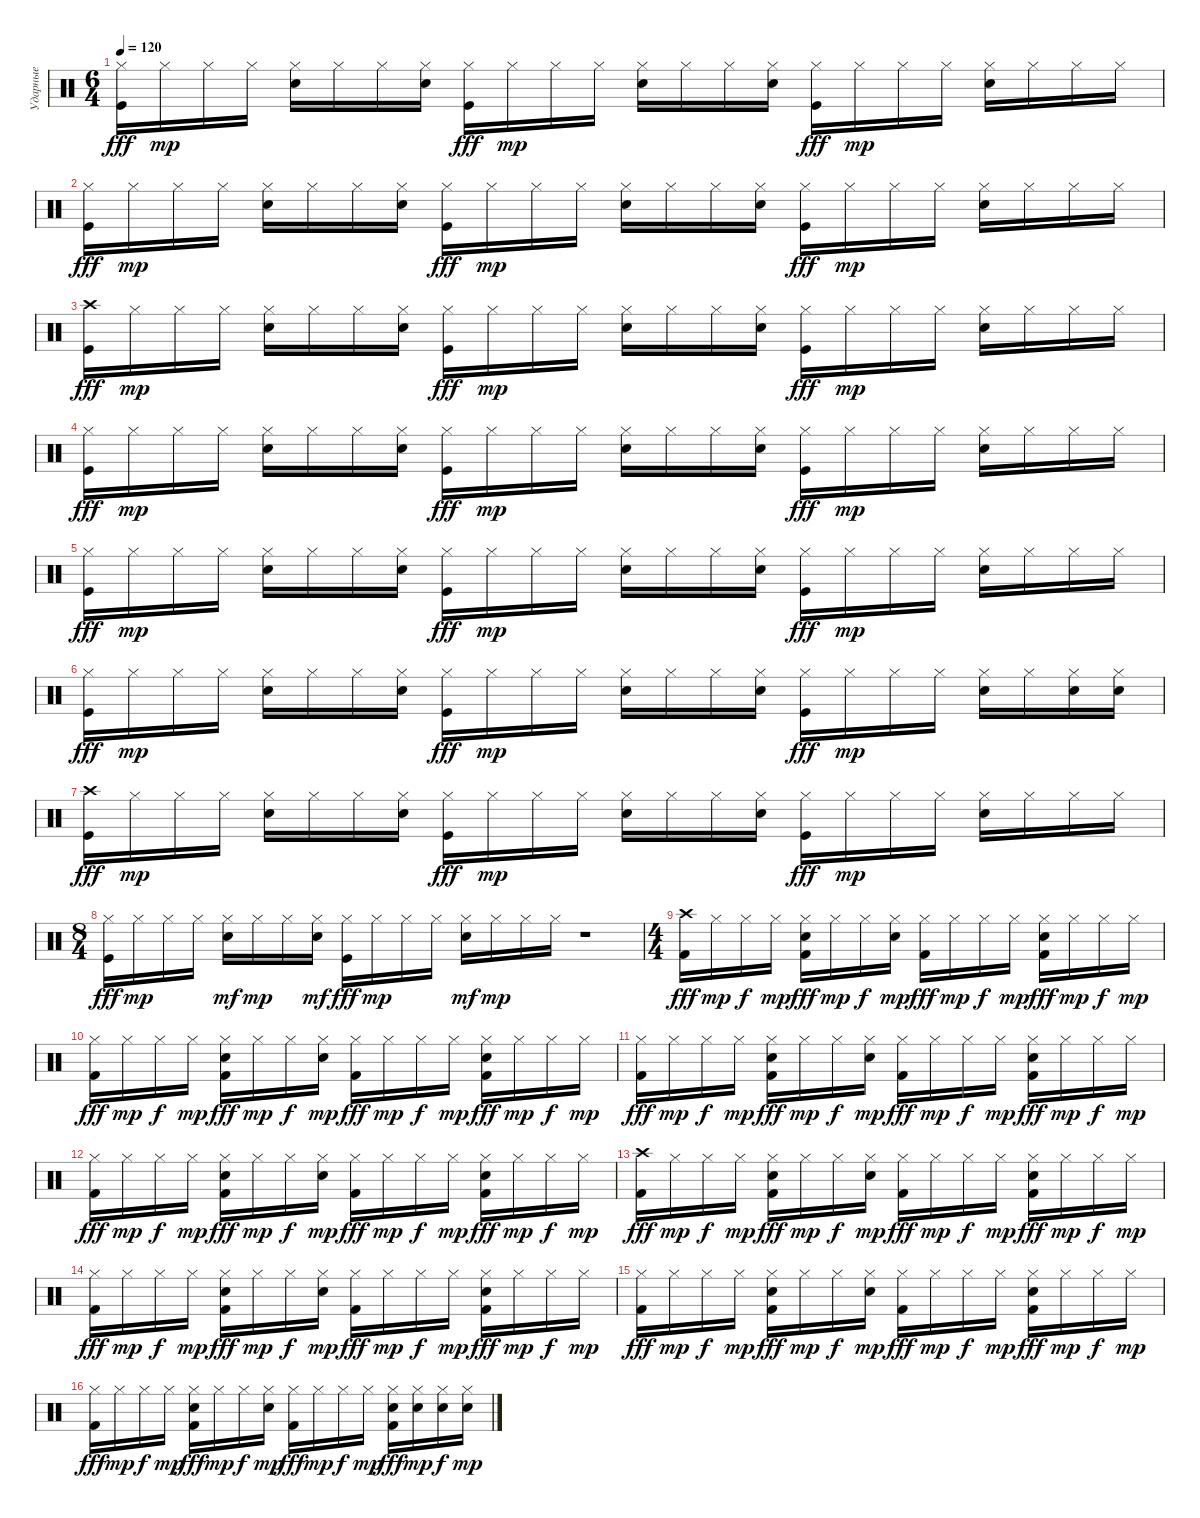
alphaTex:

\track ("Ударные" "Ударные") {instrument percussion}
\staff {score}
\articulation defaults
\ts (6 4)
\tempo 120
\clef neutral
\ks c
("Hi-Hat (closed)" "Kick (hit)").16{dy fff} "Hi-Hat (closed)".16{dy mp} "Hi-Hat (closed)".16 "Hi-Hat (closed)".16 ("Hi-Hat (closed)" "Snare (hit) 2").16 "Hi-Hat (closed)".16 "Hi-Hat (closed)".16 ("Hi-Hat (closed)" "Snare (hit) 2").16 ("Hi-Hat (closed)" "Kick (hit)").16{dy fff} "Hi-Hat (closed)".16{dy mp} "Hi-Hat (closed)".16 "Hi-Hat (closed)".16 ("Hi-Hat (closed)" "Snare (hit) 2").16 "Hi-Hat (closed)".16 "Hi-Hat (closed)".16 ("Hi-Hat (closed)" "Snare (hit) 2").16 ("Hi-Hat (closed)" "Kick (hit)").16{dy fff} "Hi-Hat (closed)".16{dy mp} "Hi-Hat (closed)".16 "Hi-Hat (closed)".16 ("Hi-Hat (closed)" "Snare (hit) 2").16 "Hi-Hat (closed)".16 "Hi-Hat (closed)".16 "Hi-Hat (closed)".16 |
("Hi-Hat (closed)" "Kick (hit)").16{dy fff} "Hi-Hat (closed)".16{dy mp} "Hi-Hat (closed)".16 "Hi-Hat (closed)".16 ("Hi-Hat (closed)" "Snare (hit) 2").16 "Hi-Hat (closed)".16 "Hi-Hat (closed)".16 ("Hi-Hat (closed)" "Snare (hit) 2").16 ("Hi-Hat (closed)" "Kick (hit)").16{dy fff} "Hi-Hat (closed)".16{dy mp} "Hi-Hat (closed)".16 "Hi-Hat (closed)".16 ("Hi-Hat (closed)" "Snare (hit) 2").16 "Hi-Hat (closed)".16 "Hi-Hat (closed)".16 ("Hi-Hat (closed)" "Snare (hit) 2").16 ("Hi-Hat (closed)" "Kick (hit)").16{dy fff} "Hi-Hat (closed)".16{dy mp} "Hi-Hat (closed)".16 "Hi-Hat (closed)".16 ("Hi-Hat (closed)" "Snare (hit) 2").16 "Hi-Hat (closed)".16 "Hi-Hat (closed)".16 "Hi-Hat (closed)".16 |
("Crash high (hit)" "Kick (hit)").16{dy fff} "Hi-Hat (closed)".16{dy mp} "Hi-Hat (closed)".16 "Hi-Hat (closed)".16 ("Hi-Hat (closed)" "Snare (hit) 2").16 "Hi-Hat (closed)".16 "Hi-Hat (closed)".16 ("Hi-Hat (closed)" "Snare (hit) 2").16 ("Hi-Hat (closed)" "Kick (hit)").16{dy fff} "Hi-Hat (closed)".16{dy mp} "Hi-Hat (closed)".16 "Hi-Hat (closed)".16 ("Hi-Hat (closed)" "Snare (hit) 2").16 "Hi-Hat (closed)".16 "Hi-Hat (closed)".16 ("Hi-Hat (closed)" "Snare (hit) 2").16 ("Hi-Hat (closed)" "Kick (hit)").16{dy fff} "Hi-Hat (closed)".16{dy mp} "Hi-Hat (closed)".16 "Hi-Hat (closed)".16 ("Hi-Hat (closed)" "Snare (hit) 2").16 "Hi-Hat (closed)".16 "Hi-Hat (closed)".16 "Hi-Hat (closed)".16 |
("Hi-Hat (closed)" "Kick (hit)").16{dy fff} "Hi-Hat (closed)".16{dy mp} "Hi-Hat (closed)".16 "Hi-Hat (closed)".16 ("Hi-Hat (closed)" "Snare (hit) 2").16 "Hi-Hat (closed)".16 "Hi-Hat (closed)".16 ("Hi-Hat (closed)" "Snare (hit) 2").16 ("Hi-Hat (closed)" "Kick (hit)").16{dy fff} "Hi-Hat (closed)".16{dy mp} "Hi-Hat (closed)".16 "Hi-Hat (closed)".16 ("Hi-Hat (closed)" "Snare (hit) 2").16 "Hi-Hat (closed)".16 "Hi-Hat (closed)".16 ("Hi-Hat (closed)" "Snare (hit) 2").16 ("Hi-Hat (closed)" "Kick (hit)").16{dy fff} "Hi-Hat (closed)".16{dy mp} "Hi-Hat (closed)".16 "Hi-Hat (closed)".16 ("Hi-Hat (closed)" "Snare (hit) 2").16 "Hi-Hat (closed)".16 "Hi-Hat (closed)".16 "Hi-Hat (closed)".16 |
("Hi-Hat (closed)" "Kick (hit)").16{dy fff} "Hi-Hat (closed)".16{dy mp} "Hi-Hat (closed)".16 "Hi-Hat (closed)".16 ("Hi-Hat (closed)" "Snare (hit) 2").16 "Hi-Hat (closed)".16 "Hi-Hat (closed)".16 ("Hi-Hat (closed)" "Snare (hit) 2").16 ("Hi-Hat (closed)" "Kick (hit)").16{dy fff} "Hi-Hat (closed)".16{dy mp} "Hi-Hat (closed)".16 "Hi-Hat (closed)".16 ("Hi-Hat (closed)" "Snare (hit) 2").16 "Hi-Hat (closed)".16 "Hi-Hat (closed)".16 ("Hi-Hat (closed)" "Snare (hit) 2").16 ("Hi-Hat (closed)" "Kick (hit)").16{dy fff} "Hi-Hat (closed)".16{dy mp} "Hi-Hat (closed)".16 "Hi-Hat (closed)".16 ("Hi-Hat (closed)" "Snare (hit) 2").16 "Hi-Hat (closed)".16 "Hi-Hat (closed)".16 "Hi-Hat (closed)".16 |
("Hi-Hat (closed)" "Kick (hit)").16{dy fff} "Hi-Hat (closed)".16{dy mp} "Hi-Hat (closed)".16 "Hi-Hat (closed)".16 ("Hi-Hat (closed)" "Snare (hit) 2").16 "Hi-Hat (closed)".16 "Hi-Hat (closed)".16 ("Hi-Hat (closed)" "Snare (hit) 2").16 ("Hi-Hat (closed)" "Kick (hit)").16{dy fff} "Hi-Hat (closed)".16{dy mp} "Hi-Hat (closed)".16 "Hi-Hat (closed)".16 ("Hi-Hat (closed)" "Snare (hit) 2").16 "Hi-Hat (closed)".16 "Hi-Hat (closed)".16 ("Hi-Hat (closed)" "Snare (hit) 2").16 ("Hi-Hat (closed)" "Kick (hit)").16{dy fff} "Hi-Hat (closed)".16{dy mp} "Hi-Hat (closed)".16 "Hi-Hat (closed)".16 ("Hi-Hat (closed)" "Snare (hit) 2").16 "Hi-Hat (closed)".16 ("Hi-Hat (closed)" "Snare (hit) 2").16 ("Hi-Hat (closed)" "Snare (hit) 2").16 |
("Crash high (hit)" "Kick (hit)").16{dy fff} "Hi-Hat (closed)".16{dy mp} "Hi-Hat (closed)".16 "Hi-Hat (closed)".16 ("Hi-Hat (closed)" "Snare (hit) 2").16 "Hi-Hat (closed)".16 "Hi-Hat (closed)".16 ("Hi-Hat (closed)" "Snare (hit) 2").16 ("Hi-Hat (closed)" "Kick (hit)").16{dy fff} "Hi-Hat (closed)".16{dy mp} "Hi-Hat (closed)".16 "Hi-Hat (closed)".16 ("Hi-Hat (closed)" "Snare (hit) 2").16 "Hi-Hat (closed)".16 "Hi-Hat (closed)".16 ("Hi-Hat (closed)" "Snare (hit) 2").16 ("Hi-Hat (closed)" "Kick (hit)").16{dy fff} "Hi-Hat (closed)".16{dy mp} "Hi-Hat (closed)".16 "Hi-Hat (closed)".16 ("Hi-Hat (closed)" "Snare (hit) 2").16 "Hi-Hat (closed)".16 "Hi-Hat (closed)".16 "Hi-Hat (closed)".16 |
\ts (8 4)
("Hi-Hat (closed)" "Kick (hit)").16{dy fff} "Hi-Hat (closed)".16{dy mp} "Hi-Hat (closed)".16 "Hi-Hat (closed)".16 ("Hi-Hat (closed)" "Snare (hit) 2").16{dy mf} "Hi-Hat (closed)".16{dy mp} "Hi-Hat (closed)".16 ("Hi-Hat (closed)" "Snare (hit) 2").16{dy mf} ("Hi-Hat (closed)" "Kick (hit)").16{dy fff} "Hi-Hat (closed)".16{dy mp} "Hi-Hat (closed)".16 "Hi-Hat (closed)".16 ("Hi-Hat (closed)" "Snare (hit) 2").16{dy mf} "Hi-Hat (closed)".16{dy mp} "Hi-Hat (closed)".16 "Hi-Hat (closed)".16 r.1 |
\ts (4 4)
("Crash high (hit)" "Kick (hit) 2").16{dy fff} "Hi-Hat (closed)".16{dy mp} "Hi-Hat (closed)".16{dy f} "Hi-Hat (closed)".16{dy mp} ("Hi-Hat (closed)" "Snare (hit) 2" "Kick (hit) 2").16{dy fff} "Hi-Hat (closed)".16{dy mp} "Hi-Hat (closed)".16{dy f} ("Hi-Hat (closed)" "Snare (hit) 2").16{dy mp} ("Hi-Hat (closed)" "Kick (hit) 2").16{dy fff} "Hi-Hat (closed)".16{dy mp} "Hi-Hat (closed)".16{dy f} "Hi-Hat (closed)".16{dy mp} ("Hi-Hat (closed)" "Snare (hit) 2" "Kick (hit) 2").16{dy fff} "Hi-Hat (closed)".16{dy mp} "Hi-Hat (closed)".16{dy f} "Hi-Hat (closed)".16{dy mp} |
("Hi-Hat (closed)" "Kick (hit) 2").16{dy fff} "Hi-Hat (closed)".16{dy mp} "Hi-Hat (closed)".16{dy f} "Hi-Hat (closed)".16{dy mp} ("Hi-Hat (closed)" "Snare (hit) 2" "Kick (hit) 2").16{dy fff} "Hi-Hat (closed)".16{dy mp} "Hi-Hat (closed)".16{dy f} ("Hi-Hat (closed)" "Snare (hit) 2").16{dy mp} ("Hi-Hat (closed)" "Kick (hit) 2").16{dy fff} "Hi-Hat (closed)".16{dy mp} "Hi-Hat (closed)".16{dy f} "Hi-Hat (closed)".16{dy mp} ("Hi-Hat (closed)" "Snare (hit) 2" "Kick (hit) 2").16{dy fff} "Hi-Hat (closed)".16{dy mp} "Hi-Hat (closed)".16{dy f} "Hi-Hat (closed)".16{dy mp} |
("Hi-Hat (closed)" "Kick (hit) 2").16{dy fff} "Hi-Hat (closed)".16{dy mp} "Hi-Hat (closed)".16{dy f} "Hi-Hat (closed)".16{dy mp} ("Hi-Hat (closed)" "Snare (hit) 2" "Kick (hit) 2").16{dy fff} "Hi-Hat (closed)".16{dy mp} "Hi-Hat (closed)".16{dy f} ("Hi-Hat (closed)" "Snare (hit) 2").16{dy mp} ("Hi-Hat (closed)" "Kick (hit) 2").16{dy fff} "Hi-Hat (closed)".16{dy mp} "Hi-Hat (closed)".16{dy f} "Hi-Hat (closed)".16{dy mp} ("Hi-Hat (closed)" "Snare (hit) 2" "Kick (hit) 2").16{dy fff} "Hi-Hat (closed)".16{dy mp} "Hi-Hat (closed)".16{dy f} "Hi-Hat (closed)".16{dy mp} |
("Hi-Hat (closed)" "Kick (hit) 2").16{dy fff} "Hi-Hat (closed)".16{dy mp} "Hi-Hat (closed)".16{dy f} "Hi-Hat (closed)".16{dy mp} ("Hi-Hat (closed)" "Snare (hit) 2" "Kick (hit) 2").16{dy fff} "Hi-Hat (closed)".16{dy mp} "Hi-Hat (closed)".16{dy f} ("Hi-Hat (closed)" "Snare (hit) 2").16{dy mp} ("Hi-Hat (closed)" "Kick (hit) 2").16{dy fff} "Hi-Hat (closed)".16{dy mp} "Hi-Hat (closed)".16{dy f} "Hi-Hat (closed)".16{dy mp} ("Hi-Hat (closed)" "Snare (hit) 2" "Kick (hit) 2").16{dy fff} "Hi-Hat (closed)".16{dy mp} "Hi-Hat (closed)".16{dy f} "Hi-Hat (closed)".16{dy mp} |
("Crash high (hit)" "Kick (hit) 2").16{dy fff} "Hi-Hat (closed)".16{dy mp} "Hi-Hat (closed)".16{dy f} "Hi-Hat (closed)".16{dy mp} ("Hi-Hat (closed)" "Snare (hit) 2" "Kick (hit) 2").16{dy fff} "Hi-Hat (closed)".16{dy mp} "Hi-Hat (closed)".16{dy f} ("Hi-Hat (closed)" "Snare (hit) 2").16{dy mp} ("Hi-Hat (closed)" "Kick (hit) 2").16{dy fff} "Hi-Hat (closed)".16{dy mp} "Hi-Hat (closed)".16{dy f} "Hi-Hat (closed)".16{dy mp} ("Hi-Hat (closed)" "Snare (hit) 2" "Kick (hit) 2").16{dy fff} "Hi-Hat (closed)".16{dy mp} "Hi-Hat (closed)".16{dy f} "Hi-Hat (closed)".16{dy mp} |
("Hi-Hat (closed)" "Kick (hit) 2").16{dy fff} "Hi-Hat (closed)".16{dy mp} "Hi-Hat (closed)".16{dy f} "Hi-Hat (closed)".16{dy mp} ("Hi-Hat (closed)" "Snare (hit) 2" "Kick (hit) 2").16{dy fff} "Hi-Hat (closed)".16{dy mp} "Hi-Hat (closed)".16{dy f} ("Hi-Hat (closed)" "Snare (hit) 2").16{dy mp} ("Hi-Hat (closed)" "Kick (hit) 2").16{dy fff} "Hi-Hat (closed)".16{dy mp} "Hi-Hat (closed)".16{dy f} "Hi-Hat (closed)".16{dy mp} ("Hi-Hat (closed)" "Snare (hit) 2" "Kick (hit) 2").16{dy fff} "Hi-Hat (closed)".16{dy mp} "Hi-Hat (closed)".16{dy f} "Hi-Hat (closed)".16{dy mp} |
("Hi-Hat (closed)" "Kick (hit) 2").16{dy fff} "Hi-Hat (closed)".16{dy mp} "Hi-Hat (closed)".16{dy f} "Hi-Hat (closed)".16{dy mp} ("Hi-Hat (closed)" "Snare (hit) 2" "Kick (hit) 2").16{dy fff} "Hi-Hat (closed)".16{dy mp} "Hi-Hat (closed)".16{dy f} ("Hi-Hat (closed)" "Snare (hit) 2").16{dy mp} ("Hi-Hat (closed)" "Kick (hit) 2").16{dy fff} "Hi-Hat (closed)".16{dy mp} "Hi-Hat (closed)".16{dy f} "Hi-Hat (closed)".16{dy mp} ("Hi-Hat (closed)" "Snare (hit) 2" "Kick (hit) 2").16{dy fff} "Hi-Hat (closed)".16{dy mp} "Hi-Hat (closed)".16{dy f} "Hi-Hat (closed)".16{dy mp} |
("Hi-Hat (closed)" "Kick (hit) 2").16{dy fff} "Hi-Hat (closed)".16{dy mp} "Hi-Hat (closed)".16{dy f} "Hi-Hat (closed)".16{dy mp} ("Hi-Hat (closed)" "Snare (hit) 2" "Kick (hit) 2").16{dy fff} "Hi-Hat (closed)".16{dy mp} "Hi-Hat (closed)".16{dy f} ("Hi-Hat (closed)" "Snare (hit) 2").16{dy mp} ("Hi-Hat (closed)" "Kick (hit) 2").16{dy fff} "Hi-Hat (closed)".16{dy mp} "Hi-Hat (closed)".16{dy f} "Hi-Hat (closed)".16{dy mp} ("Hi-Hat (closed)" "Snare (hit) 2" "Kick (hit) 2").16{dy fff} ("Hi-Hat (closed)" "Snare (hit) 2").16{dy mp} ("Hi-Hat (closed)" "Snare (hit) 2").16{dy f} ("Hi-Hat (closed)" "Snare (hit) 2").16{dy mp}
